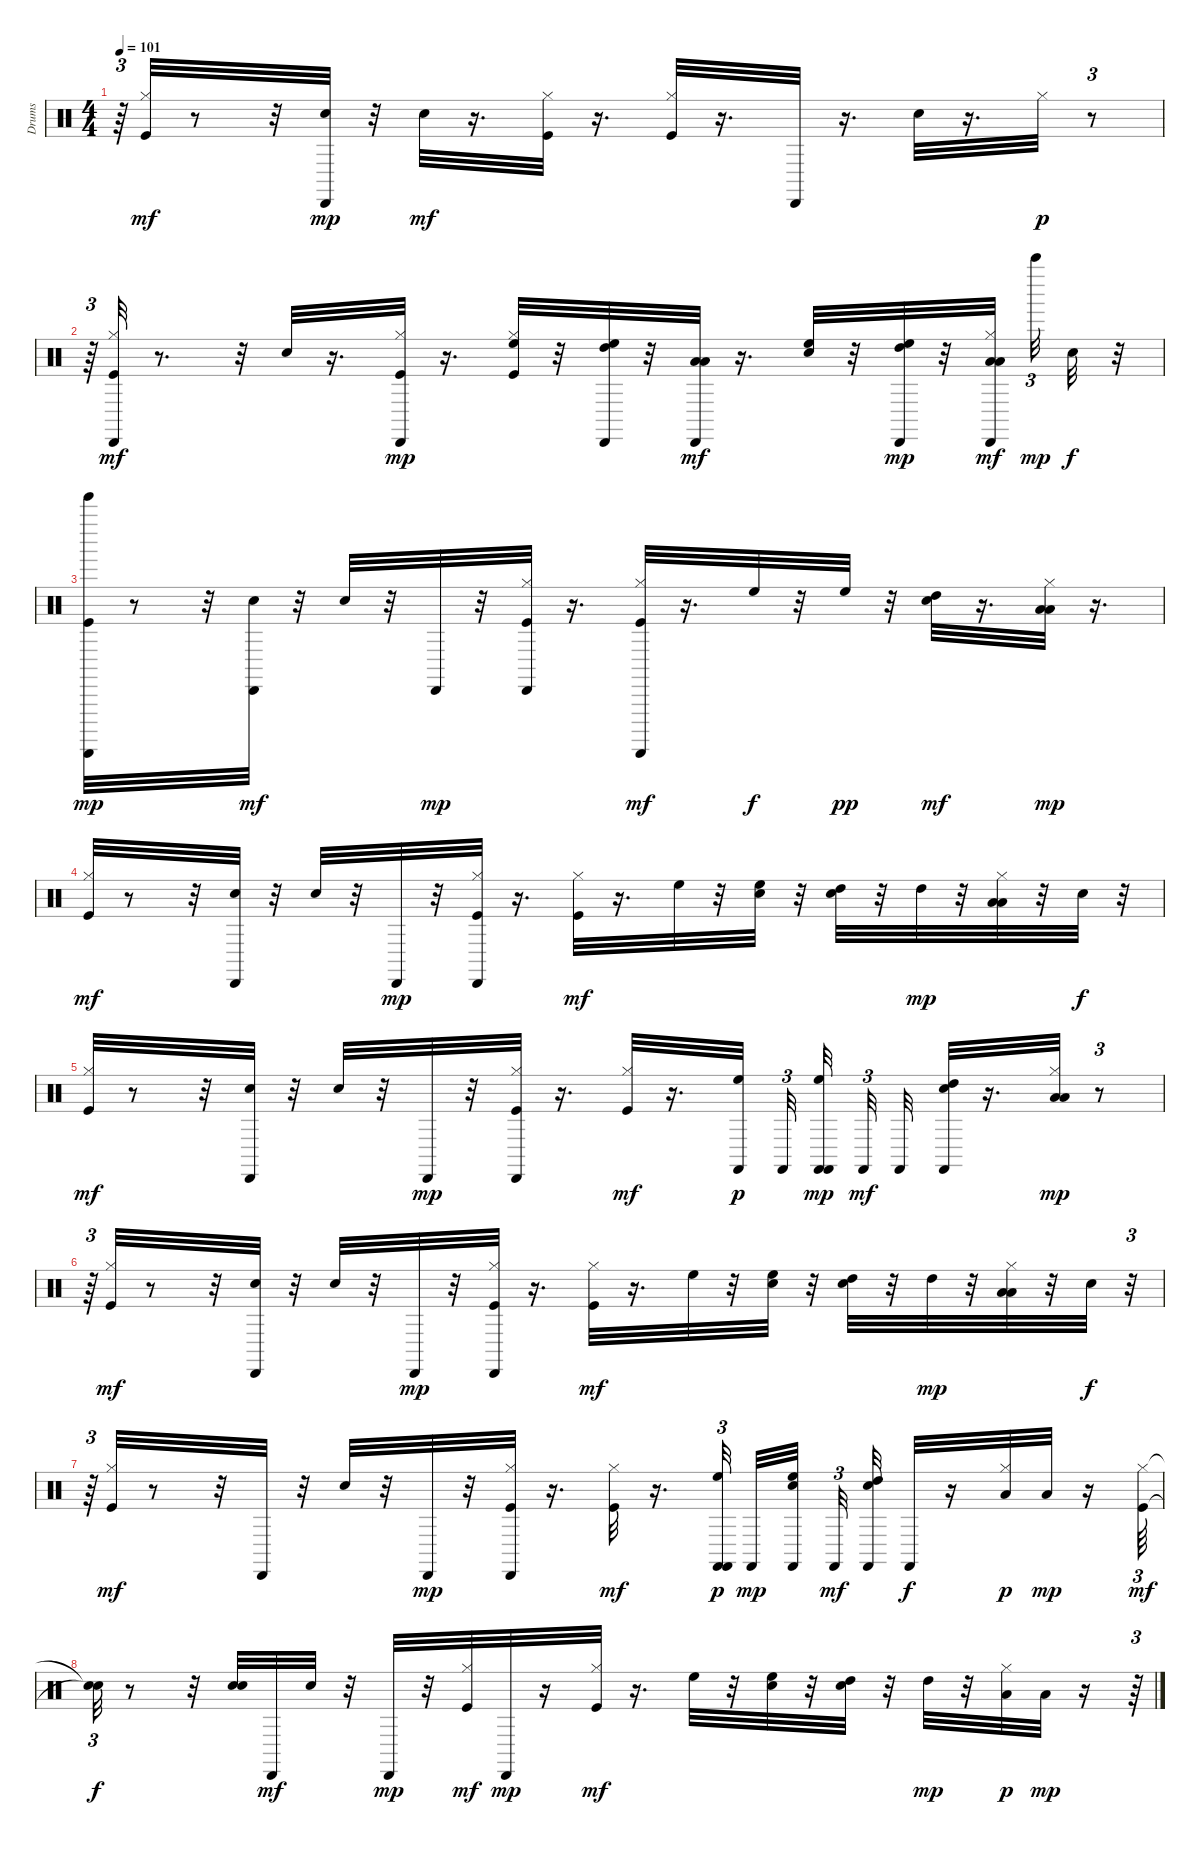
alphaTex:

\track ("Drums" "Drums") {instrument percussion}
\staff {score}
\articulation defaults
\ts (4 4)
\tempo 101
\clef neutral
\ks c
r.64{tu (3 2) dy mp} ("Kick (hit)" "Hi-Hat (closed)").32{dy mf} r.8 r.32 ("Hand Clap (hit)" "Cabasa (hit)").32{dy mp} r.32 "Snare (hit) 2".32{dy mf} r.16{d} ("Kick (hit)" "Hi-Hat (closed)").32 r.16{d} ("Kick (hit)" "Hi-Hat (closed)").32 r.16{d} "Cabasa (hit)".32 r.16{d} "Snare (hit) 2".32 r.16{d} "Hi-Hat (closed)".32{dy p} r.8{tu (3 2)} |
r.64{tu (3 2)} ("Kick (hit)" "Hi-Hat (closed)" "Cabasa (hit)").32{dy mf} r.8{d} r.32 "Snare (hit) 2".32 r.16{d} ("Kick (hit)" "Hi-Hat (closed)" "Cabasa (hit)").32{dy mp} r.16{d} ("Kick (hit)" "Hi-Hat (closed)" "High Floor Tom (hit)").32 r.32 ("High Tom (hit)" "High Floor Tom (hit)" "Cabasa (hit)").32 r.32 ("Low Floor Tom (hit)" "Low Tom (hit)" "Cabasa (hit)").32{dy mf} r.16{d} ("Snare (hit) 2" "High Floor Tom (hit)").32 r.32 ("High Tom (hit)" "High Floor Tom (hit)" "Cabasa (hit)").32{dy mp} r.32 ("Low Floor Tom (hit)" "Hi-Hat (closed)" "Low Tom (hit)" "Cabasa (hit)").32{dy mf beam splitsecondary} "Bell Tree (hit)".32{tu (3 2) dy mp} "Hand Clap (hit)".32{dy f} r.32 |
("Kick (hit)" "Guiro (scrap-return)" "Tinkle Bell (hit)").32{dy mp} r.8 r.32 ("Hand Clap (hit)" "Cabasa (hit)").32{dy mf} r.32 "Snare (hit) 2".32 r.32 "Cabasa (hit)".32{dy mp} r.32 ("Kick (hit)" "Hi-Hat (closed)" "Cabasa (hit)").32 r.16{d} ("Kick (hit)" "Hi-Hat (closed)" "Guiro (scrap-return)").32{dy mf} r.16{d} "High Floor Tom (hit)".32{dy f} r.32 "High Floor Tom (hit)".32{dy pp} r.32 ("Snare (hit) 2" "High Tom (hit)").32{dy mf} r.16{d} ("Low Floor Tom (hit)" "Hi-Hat (closed)" "Low Tom (hit)").32{dy mp} r.16{d} |
("Kick (hit)" "Hi-Hat (closed)").32{dy mf} r.8 r.32 ("Hand Clap (hit)" "Cabasa (hit)").32 r.32 "Snare (hit) 2".32 r.32 "Cabasa (hit)".32{dy mp} r.32 ("Kick (hit)" "Hi-Hat (closed)" "Cabasa (hit)").32 r.16{d} ("Kick (hit)" "Hi-Hat (closed)").32{dy mf} r.16{d} "High Floor Tom (hit)".32 r.32 ("Hand Clap (hit)" "High Floor Tom (hit)").32 r.32 ("Snare (hit) 2" "High Tom (hit)").32 r.32 "High Tom (hit)".32{dy mp} r.32 ("Low Floor Tom (hit)" "Hi-Hat (closed)" "Low Tom (hit)").32 r.32 "Hand Clap (hit)".32{dy f} r.32 |
("Kick (hit)" "Hi-Hat (closed)").32{dy mf} r.8 r.32 ("Hand Clap (hit)" "Cabasa (hit)").32 r.32 "Snare (hit) 2".32 r.32 "Cabasa (hit)".32{dy mp} r.32 ("Kick (hit)" "Hi-Hat (closed)" "Cabasa (hit)").32 r.16{d} ("Kick (hit)" "Hi-Hat (closed)").32{dy mf} r.16{d} ("High Floor Tom (hit)" "Castanets (hit)").32{dy p beam splitsecondary} "Castanets (hit)".32{tu (3 2) beam splitsecondary} ("Castanets (hit)" "High Floor Tom (hit)" "Castanets (hit)").32{dy mp beam splitsecondary} "Castanets (hit)".32{tu (3 2) dy mf} "Castanets (hit)".32 ("Snare (hit) 2" "High Tom (hit)" "Castanets (hit)").32 r.16{d} ("Low Floor Tom (hit)" "Hi-Hat (closed)" "Low Tom (hit)").32{dy mp} r.8{tu (3 2)} |
r.64{tu (3 2)} ("Kick (hit)" "Hi-Hat (closed)").32{dy mf} r.8 r.32 ("Hand Clap (hit)" "Cabasa (hit)").32 r.32 "Snare (hit) 2".32 r.32 "Cabasa (hit)".32{dy mp} r.32 ("Kick (hit)" "Hi-Hat (closed)" "Cabasa (hit)").32 r.16{d} ("Kick (hit)" "Hi-Hat (closed)").32{dy mf} r.16{d} "High Floor Tom (hit)".32 r.32 ("Hand Clap (hit)" "High Floor Tom (hit)").32 r.32 ("Snare (hit) 2" "High Tom (hit)").32 r.32 "High Tom (hit)".32{dy mp} r.32 ("Low Floor Tom (hit)" "Hi-Hat (closed)" "Low Tom (hit)").32 r.32 "Hand Clap (hit)".32{dy f} r.32{tu (3 2)} |
r.64{tu (3 2)} ("Kick (hit)" "Hi-Hat (closed)").32{dy mf} r.8 r.32 "Cabasa (hit)".32 r.32 "Snare (hit) 2".32 r.32 "Cabasa (hit)".32{dy mp} r.32 ("Kick (hit)" "Hi-Hat (closed)" "Cabasa (hit)").32 r.16{d} ("Kick (hit)" "Hi-Hat (closed)").32{dy mf} r.16{d} ("High Floor Tom (hit)" "Castanets (hit)" "Castanets (hit)").32{tu (3 2) dy p beam splitsecondary} "Castanets (hit)".32{dy mp} ("Hand Clap (hit)" "High Floor Tom (hit)" "Castanets (hit)").32{beam splitsecondary} "Castanets (hit)".32{tu (3 2) dy mf} ("Castanets (hit)" "Snare (hit) 2" "High Tom (hit)").32 "Castanets (hit)".32{dy f} r.16 ("Low Floor Tom (hit)" "Hi-Hat (closed)").32{dy p} "Low Tom (hit)".32{dy mp} r.16 ("Kick (hit)" "Hi-Hat (closed)").64{tu (3 2) dy mf} |
("Snare (hit)"{t} "Snare (hit)"{t}).32{tu (3 2) dy f} r.8 r.32 ("Hand Clap (hit)" "Hand Clap (hit)").32 "Cabasa (hit)".32{dy mf} "Snare (hit) 2".32 r.32 "Cabasa (hit)".32{dy mp} r.32 ("Kick (hit)" "Hi-Hat (closed)").32{dy mf} "Cabasa (hit)".32{dy mp} r.16 ("Kick (hit)" "Hi-Hat (closed)").32{dy mf} r.16{d} "High Floor Tom (hit)".32 r.32 ("Hand Clap (hit)" "High Floor Tom (hit)").32 r.32 ("Snare (hit) 2" "High Tom (hit)").32 r.32 "High Tom (hit)".32{dy mp} r.32 ("Low Floor Tom (hit)" "Hi-Hat (closed)").32{dy p} "Low Tom (hit)".32{dy mp} r.16 r.64{tu (3 2)}
